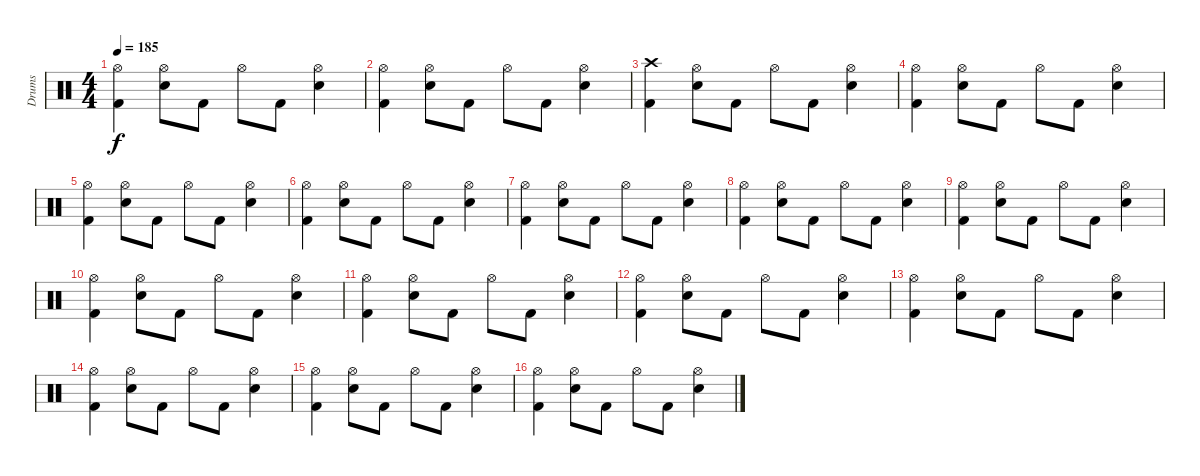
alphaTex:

\track ("Drums" "Drums") {instrument percussion}
\staff {score}
\articulation defaults
\ts (4 4)
\tempo 185
\clef neutral
\ks c
("Kick (hit) 2" "Hi-Hat (open)").4{dy f} ("Electric Snare (hit)" "Hi-Hat (open)").8 "Kick (hit) 2".8 "Hi-Hat (open)".8 "Kick (hit) 2".8 ("Electric Snare (hit)" "Hi-Hat (open)").4 |
("Kick (hit) 2" "Hi-Hat (open)").4 ("Electric Snare (hit)" "Hi-Hat (open)").8 "Kick (hit) 2".8 "Hi-Hat (open)".8 "Kick (hit) 2".8 ("Electric Snare (hit)" "Hi-Hat (open)").4 |
("Kick (hit) 2" "Crash high (hit)").4 ("Electric Snare (hit)" "Hi-Hat (open)").8 "Kick (hit) 2".8 "Hi-Hat (open)".8 "Kick (hit) 2".8 ("Electric Snare (hit)" "Hi-Hat (open)").4 |
("Kick (hit) 2" "Hi-Hat (open)").4 ("Electric Snare (hit)" "Hi-Hat (open)").8 "Kick (hit) 2".8 "Hi-Hat (open)".8 "Kick (hit) 2".8 ("Electric Snare (hit)" "Hi-Hat (open)").4 |
("Kick (hit) 2" "Hi-Hat (open)").4 ("Electric Snare (hit)" "Hi-Hat (open)").8 "Kick (hit) 2".8 "Hi-Hat (open)".8 "Kick (hit) 2".8 ("Electric Snare (hit)" "Hi-Hat (open)").4 |
("Kick (hit) 2" "Hi-Hat (open)").4 ("Electric Snare (hit)" "Hi-Hat (open)").8 "Kick (hit) 2".8 "Hi-Hat (open)".8 "Kick (hit) 2".8 ("Electric Snare (hit)" "Hi-Hat (open)").4 |
("Kick (hit) 2" "Hi-Hat (open)").4 ("Electric Snare (hit)" "Hi-Hat (open)").8 "Kick (hit) 2".8 "Hi-Hat (open)".8 "Kick (hit) 2".8 ("Electric Snare (hit)" "Hi-Hat (open)").4 |
("Kick (hit) 2" "Hi-Hat (open)").4 ("Electric Snare (hit)" "Hi-Hat (open)").8 "Kick (hit) 2".8 "Hi-Hat (open)".8 "Kick (hit) 2".8 ("Electric Snare (hit)" "Hi-Hat (open)").4 |
("Kick (hit) 2" "Hi-Hat (open)").4 ("Electric Snare (hit)" "Hi-Hat (open)").8 "Kick (hit) 2".8 "Hi-Hat (open)".8 "Kick (hit) 2".8 ("Electric Snare (hit)" "Hi-Hat (open)").4 |
("Kick (hit) 2" "Hi-Hat (open)").4 ("Electric Snare (hit)" "Hi-Hat (open)").8 "Kick (hit) 2".8 "Hi-Hat (open)".8 "Kick (hit) 2".8 ("Electric Snare (hit)" "Hi-Hat (open)").4 |
("Kick (hit) 2" "Hi-Hat (open)").4 ("Electric Snare (hit)" "Hi-Hat (open)").8 "Kick (hit) 2".8 "Hi-Hat (open)".8 "Kick (hit) 2".8 ("Electric Snare (hit)" "Hi-Hat (open)").4 |
("Kick (hit) 2" "Hi-Hat (open)").4 ("Electric Snare (hit)" "Hi-Hat (open)").8 "Kick (hit) 2".8 "Hi-Hat (open)".8 "Kick (hit) 2".8 ("Electric Snare (hit)" "Hi-Hat (open)").4 |
("Kick (hit) 2" "Hi-Hat (open)").4 ("Electric Snare (hit)" "Hi-Hat (open)").8 "Kick (hit) 2".8 "Hi-Hat (open)".8 "Kick (hit) 2".8 ("Electric Snare (hit)" "Hi-Hat (open)").4 |
("Kick (hit) 2" "Hi-Hat (open)").4 ("Electric Snare (hit)" "Hi-Hat (open)").8 "Kick (hit) 2".8 "Hi-Hat (open)".8 "Kick (hit) 2".8 ("Electric Snare (hit)" "Hi-Hat (open)").4 |
("Kick (hit) 2" "Hi-Hat (open)").4 ("Electric Snare (hit)" "Hi-Hat (open)").8 "Kick (hit) 2".8 "Hi-Hat (open)".8 "Kick (hit) 2".8 ("Electric Snare (hit)" "Hi-Hat (open)").4 |
("Kick (hit) 2" "Hi-Hat (open)").4 ("Electric Snare (hit)" "Hi-Hat (open)").8 "Kick (hit) 2".8 "Hi-Hat (open)".8 "Kick (hit) 2".8 ("Electric Snare (hit)" "Hi-Hat (open)").4
